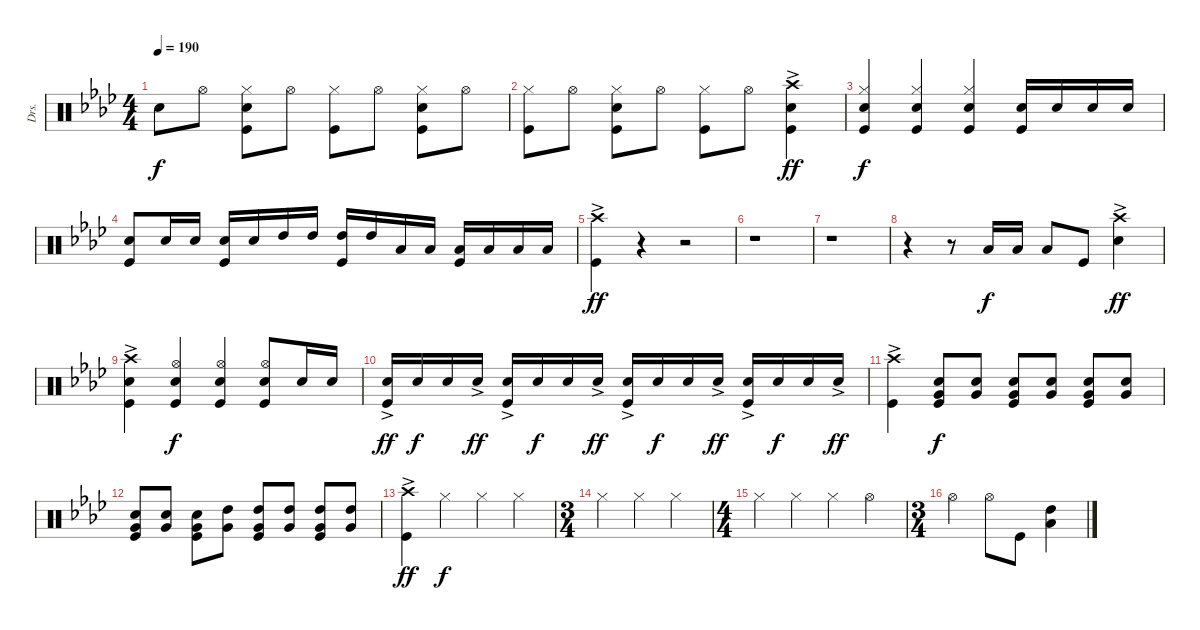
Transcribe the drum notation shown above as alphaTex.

\track ("Drs." "Drs.") {instrument percussion}
\staff {score}
\articulation defaults
\ts (4 4)
\tempo 190
\clef neutral
\ks ab "Snare (hit)"{t}.8{dy f} "Hi-Hat (open)".8
("Hi-Hat (closed)" "Snare (hit) 2" "Kick (hit)").8 "Hi-Hat (open)".8 ("Hi-Hat (closed)" "Kick (hit)").8 "Hi-Hat (open)".8 ("Hi-Hat (closed)" "Snare (hit) 2" "Kick (hit)").8 "Hi-Hat (open)".8 |
("Hi-Hat (closed)" "Kick (hit)").8 "Hi-Hat (open)".8 ("Hi-Hat (closed)" "Snare (hit) 2" "Kick (hit)").8 "Hi-Hat (open)".8 ("Hi-Hat (closed)" "Kick (hit)").8 "Hi-Hat (open)".8 ("Crash high (hit)"{ac} "Snare (hit) 2"{ac} "Kick (hit)"{ac}).4{dy ff} |
("Hi-Hat (closed)" "Snare (hit) 2" "Kick (hit)").4{dy f} ("Hi-Hat (closed)" "Snare (hit) 2" "Kick (hit)").4 ("Hi-Hat (closed)" "Snare (hit) 2" "Kick (hit)").4 ("Snare (hit) 2" "Kick (hit)").16 "Snare (hit) 2".16 "Snare (hit) 2".16 "Snare (hit) 2".16 |
("Snare (hit) 2" "Kick (hit)").8 "Snare (hit) 2".16 "Snare (hit) 2".16 ("Snare (hit) 2" "Kick (hit)").16 "Snare (hit) 2".16 "High Tom (hit)".16 "High Tom (hit)".16 ("High Tom (hit)" "Kick (hit)").16 "High Tom (hit)".16 "Low Tom (hit)".16 "Low Tom (hit)".16 ("Low Tom (hit)" "Kick (hit)").16 "Low Tom (hit)".16 "Low Tom (hit)".16 "Low Tom (hit)".16 |
("Crash high (hit)"{ac} "Kick (hit)").4{dy ff} r.4 r.2 |
r.1 |
r.1 |
r.4 r.8 "Low Tom (hit)".16{dy f} "Low Tom (hit)".16 "Low Tom (hit)".8 "Kick (hit)".8 ("Crash high (hit)"{ac} "Snare (hit) 2").4{dy ff} |
("Crash high (hit)"{ac} "Snare (hit) 2" "Kick (hit)").4 ("Hi-Hat (open)" "Snare (hit) 2" "Kick (hit)").4{dy f} ("Hi-Hat (open)" "Snare (hit) 2" "Kick (hit)").4 ("Hi-Hat (open)" "Snare (hit) 2" "Kick (hit)").8 "Snare (hit) 2".16 "Snare (hit) 2".16 |
("Snare (hit) 2"{ac} "Kick (hit)").16{dy ff} "Snare (hit) 2".16{dy f} "Snare (hit) 2".16 "Snare (hit) 2"{ac}.16{dy ff} ("Snare (hit) 2"{ac} "Kick (hit)").16 "Snare (hit) 2".16{dy f} "Snare (hit) 2".16 "Snare (hit) 2"{ac}.16{dy ff} ("Snare (hit) 2"{ac} "Kick (hit)").16 "Snare (hit) 2".16{dy f} "Snare (hit) 2".16 "Snare (hit) 2"{ac}.16{dy ff} ("Snare (hit) 2"{ac} "Kick (hit)").16 "Snare (hit) 2".16{dy f} "Snare (hit) 2".16 "Snare (hit) 2"{ac}.16{dy ff} |
("Crash high (hit)"{ac} "Kick (hit)").4 ("Snare (hit) 2" "Very Low Tom (hit)" "Kick (hit)").8{dy f} ("Snare (hit) 2" "Very Low Tom (hit)").8 ("Snare (hit) 2" "Very Low Tom (hit)" "Kick (hit)").8 ("Snare (hit) 2" "Very Low Tom (hit)").8 ("Snare (hit) 2" "Very Low Tom (hit)" "Kick (hit)").8 ("Snare (hit) 2" "Very Low Tom (hit)").8 |
("Snare (hit) 2" "Very Low Tom (hit)" "Kick (hit)").8 ("Snare (hit) 2" "Very Low Tom (hit)").8 ("Snare (hit) 2" "Very Low Tom (hit)" "Kick (hit)").8 ("High Tom (hit)" "Very Low Tom (hit)").8 ("High Tom (hit)" "Very Low Tom (hit)" "Kick (hit)").8 ("High Tom (hit)" "Very Low Tom (hit)").8 ("High Tom (hit)" "Very Low Tom (hit)" "Kick (hit)").8 ("High Tom (hit)" "Very Low Tom (hit)").8 |
("Crash high (hit)"{ac} "Kick (hit)").4{dy ff} "Hi-Hat (closed)".4{dy f} "Hi-Hat (closed)".4 "Hi-Hat (closed)".4 |
\ts (3 4)
"Hi-Hat (closed)".4 "Hi-Hat (closed)".4 "Hi-Hat (closed)".4 |
\ts (4 4)
"Hi-Hat (closed)".4 "Hi-Hat (closed)".4 "Hi-Hat (closed)".4 "Hi-Hat (open)".4 |
\ts (3 4)
"Hi-Hat (open)".4 "Hi-Hat (open)".8 "Kick (hit)".8 ("High Tom (hit)" "Low Tom (hit)").4
